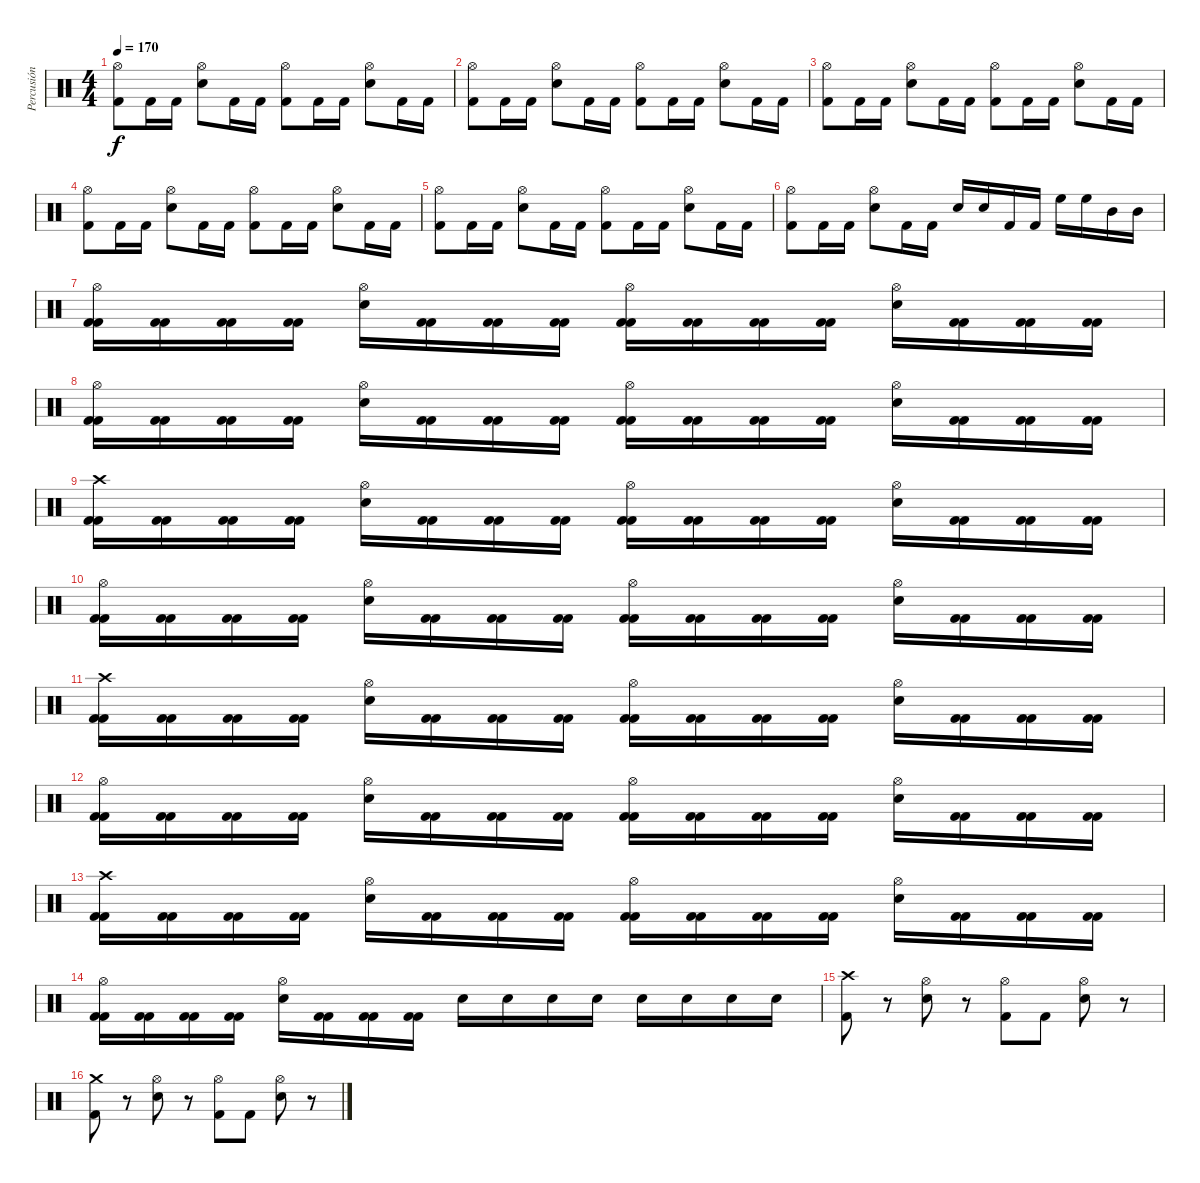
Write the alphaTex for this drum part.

\track ("Percusión" "Percusión") {instrument percussion}
\staff {score}
\articulation defaults
\ts (4 4)
\tempo 170
\clef neutral
\ks c
("Hi-Hat (open)" "Kick (hit) 2").8{dy f} "Kick (hit) 2".16 "Kick (hit) 2".16 ("Hi-Hat (open)" "Electric Snare (hit)").8 "Kick (hit) 2".16 "Kick (hit) 2".16 ("Hi-Hat (open)" "Kick (hit) 2").8 "Kick (hit) 2".16 "Kick (hit) 2".16 ("Hi-Hat (open)" "Electric Snare (hit)").8 "Kick (hit) 2".16 "Kick (hit) 2".16 |
("Hi-Hat (open)" "Kick (hit) 2").8 "Kick (hit) 2".16 "Kick (hit) 2".16 ("Hi-Hat (open)" "Electric Snare (hit)").8 "Kick (hit) 2".16 "Kick (hit) 2".16 ("Hi-Hat (open)" "Kick (hit) 2").8 "Kick (hit) 2".16 "Kick (hit) 2".16 ("Hi-Hat (open)" "Electric Snare (hit)").8 "Kick (hit) 2".16 "Kick (hit) 2".16 |
("Hi-Hat (open)" "Kick (hit) 2").8 "Kick (hit) 2".16 "Kick (hit) 2".16 ("Hi-Hat (open)" "Electric Snare (hit)").8 "Kick (hit) 2".16 "Kick (hit) 2".16 ("Hi-Hat (open)" "Kick (hit) 2").8 "Kick (hit) 2".16 "Kick (hit) 2".16 ("Hi-Hat (open)" "Electric Snare (hit)").8 "Kick (hit) 2".16 "Kick (hit) 2".16 |
("Hi-Hat (open)" "Kick (hit) 2").8 "Kick (hit) 2".16 "Kick (hit) 2".16 ("Hi-Hat (open)" "Electric Snare (hit)").8 "Kick (hit) 2".16 "Kick (hit) 2".16 ("Hi-Hat (open)" "Kick (hit) 2").8 "Kick (hit) 2".16 "Kick (hit) 2".16 ("Hi-Hat (open)" "Electric Snare (hit)").8 "Kick (hit) 2".16 "Kick (hit) 2".16 |
("Hi-Hat (open)" "Kick (hit) 2").8 "Kick (hit) 2".16 "Kick (hit) 2".16 ("Hi-Hat (open)" "Electric Snare (hit)").8 "Kick (hit) 2".16 "Kick (hit) 2".16 ("Hi-Hat (open)" "Kick (hit) 2").8 "Kick (hit) 2".16 "Kick (hit) 2".16 ("Hi-Hat (open)" "Electric Snare (hit)").8 "Kick (hit) 2".16 "Kick (hit) 2".16 |
("Hi-Hat (open)" "Kick (hit) 2").8 "Kick (hit) 2".16 "Kick (hit) 2".16 ("Hi-Hat (open)" "Electric Snare (hit)").8 "Kick (hit) 2".16 "Kick (hit) 2".16 "Electric Snare (hit)".16 "Electric Snare (hit)".16 "Kick (hit) 2".16 "Kick (hit) 2".16 "High Floor Tom (hit)".16 "High Floor Tom (hit)".16 "Mid Tom (hit)".16 "Mid Tom (hit)".16 |
("Hi-Hat (open)" "Kick (hit) 2" "Kick (hit) 2").16 ("Kick (hit) 2" "Kick (hit) 2").16 ("Kick (hit) 2" "Kick (hit) 2").16 ("Kick (hit) 2" "Kick (hit) 2").16 ("Hi-Hat (open)" "Electric Snare (hit)").16 ("Kick (hit) 2" "Kick (hit) 2").16 ("Kick (hit) 2" "Kick (hit) 2").16 ("Kick (hit) 2" "Kick (hit) 2").16 ("Hi-Hat (open)" "Kick (hit) 2" "Kick (hit) 2").16 ("Kick (hit) 2" "Kick (hit) 2").16 ("Kick (hit) 2" "Kick (hit) 2").16 ("Kick (hit) 2" "Kick (hit) 2").16 ("Hi-Hat (open)" "Electric Snare (hit)").16 ("Kick (hit) 2" "Kick (hit) 2").16 ("Kick (hit) 2" "Kick (hit) 2").16 ("Kick (hit) 2" "Kick (hit) 2").16 |
("Hi-Hat (open)" "Kick (hit) 2" "Kick (hit) 2").16 ("Kick (hit) 2" "Kick (hit) 2").16 ("Kick (hit) 2" "Kick (hit) 2").16 ("Kick (hit) 2" "Kick (hit) 2").16 ("Hi-Hat (open)" "Electric Snare (hit)").16 ("Kick (hit) 2" "Kick (hit) 2").16 ("Kick (hit) 2" "Kick (hit) 2").16 ("Kick (hit) 2" "Kick (hit) 2").16 ("Hi-Hat (open)" "Kick (hit) 2" "Kick (hit) 2").16 ("Kick (hit) 2" "Kick (hit) 2").16 ("Kick (hit) 2" "Kick (hit) 2").16 ("Kick (hit) 2" "Kick (hit) 2").16 ("Hi-Hat (open)" "Electric Snare (hit)").16 ("Kick (hit) 2" "Kick (hit) 2").16 ("Kick (hit) 2" "Kick (hit) 2").16 ("Kick (hit) 2" "Kick (hit) 2").16 |
("Crash high (hit)" "Kick (hit) 2" "Kick (hit) 2").16 ("Kick (hit) 2" "Kick (hit) 2").16 ("Kick (hit) 2" "Kick (hit) 2").16 ("Kick (hit) 2" "Kick (hit) 2").16 ("Hi-Hat (open)" "Electric Snare (hit)").16 ("Kick (hit) 2" "Kick (hit) 2").16 ("Kick (hit) 2" "Kick (hit) 2").16 ("Kick (hit) 2" "Kick (hit) 2").16 ("Hi-Hat (open)" "Kick (hit) 2" "Kick (hit) 2").16 ("Kick (hit) 2" "Kick (hit) 2").16 ("Kick (hit) 2" "Kick (hit) 2").16 ("Kick (hit) 2" "Kick (hit) 2").16 ("Hi-Hat (open)" "Electric Snare (hit)").16 ("Kick (hit) 2" "Kick (hit) 2").16 ("Kick (hit) 2" "Kick (hit) 2").16 ("Kick (hit) 2" "Kick (hit) 2").16 |
("Hi-Hat (open)" "Kick (hit) 2" "Kick (hit) 2").16 ("Kick (hit) 2" "Kick (hit) 2").16 ("Kick (hit) 2" "Kick (hit) 2").16 ("Kick (hit) 2" "Kick (hit) 2").16 ("Hi-Hat (open)" "Electric Snare (hit)").16 ("Kick (hit) 2" "Kick (hit) 2").16 ("Kick (hit) 2" "Kick (hit) 2").16 ("Kick (hit) 2" "Kick (hit) 2").16 ("Hi-Hat (open)" "Kick (hit) 2" "Kick (hit) 2").16 ("Kick (hit) 2" "Kick (hit) 2").16 ("Kick (hit) 2" "Kick (hit) 2").16 ("Kick (hit) 2" "Kick (hit) 2").16 ("Hi-Hat (open)" "Electric Snare (hit)").16 ("Kick (hit) 2" "Kick (hit) 2").16 ("Kick (hit) 2" "Kick (hit) 2").16 ("Kick (hit) 2" "Kick (hit) 2").16 |
("Crash high (hit)" "Kick (hit) 2" "Kick (hit) 2").16 ("Kick (hit) 2" "Kick (hit) 2").16 ("Kick (hit) 2" "Kick (hit) 2").16 ("Kick (hit) 2" "Kick (hit) 2").16 ("Hi-Hat (open)" "Electric Snare (hit)").16 ("Kick (hit) 2" "Kick (hit) 2").16 ("Kick (hit) 2" "Kick (hit) 2").16 ("Kick (hit) 2" "Kick (hit) 2").16 ("Hi-Hat (open)" "Kick (hit) 2" "Kick (hit) 2").16 ("Kick (hit) 2" "Kick (hit) 2").16 ("Kick (hit) 2" "Kick (hit) 2").16 ("Kick (hit) 2" "Kick (hit) 2").16 ("Hi-Hat (open)" "Electric Snare (hit)").16 ("Kick (hit) 2" "Kick (hit) 2").16 ("Kick (hit) 2" "Kick (hit) 2").16 ("Kick (hit) 2" "Kick (hit) 2").16 |
("Hi-Hat (open)" "Kick (hit) 2" "Kick (hit) 2").16 ("Kick (hit) 2" "Kick (hit) 2").16 ("Kick (hit) 2" "Kick (hit) 2").16 ("Kick (hit) 2" "Kick (hit) 2").16 ("Hi-Hat (open)" "Electric Snare (hit)").16 ("Kick (hit) 2" "Kick (hit) 2").16 ("Kick (hit) 2" "Kick (hit) 2").16 ("Kick (hit) 2" "Kick (hit) 2").16 ("Hi-Hat (open)" "Kick (hit) 2" "Kick (hit) 2").16 ("Kick (hit) 2" "Kick (hit) 2").16 ("Kick (hit) 2" "Kick (hit) 2").16 ("Kick (hit) 2" "Kick (hit) 2").16 ("Hi-Hat (open)" "Electric Snare (hit)").16 ("Kick (hit) 2" "Kick (hit) 2").16 ("Kick (hit) 2" "Kick (hit) 2").16 ("Kick (hit) 2" "Kick (hit) 2").16 |
("Crash high (hit)" "Kick (hit) 2" "Kick (hit) 2").16 ("Kick (hit) 2" "Kick (hit) 2").16 ("Kick (hit) 2" "Kick (hit) 2").16 ("Kick (hit) 2" "Kick (hit) 2").16 ("Hi-Hat (open)" "Electric Snare (hit)").16 ("Kick (hit) 2" "Kick (hit) 2").16 ("Kick (hit) 2" "Kick (hit) 2").16 ("Kick (hit) 2" "Kick (hit) 2").16 ("Hi-Hat (open)" "Kick (hit) 2" "Kick (hit) 2").16 ("Kick (hit) 2" "Kick (hit) 2").16 ("Kick (hit) 2" "Kick (hit) 2").16 ("Kick (hit) 2" "Kick (hit) 2").16 ("Hi-Hat (open)" "Electric Snare (hit)").16 ("Kick (hit) 2" "Kick (hit) 2").16 ("Kick (hit) 2" "Kick (hit) 2").16 ("Kick (hit) 2" "Kick (hit) 2").16 |
("Hi-Hat (open)" "Kick (hit) 2" "Kick (hit) 2").16 ("Kick (hit) 2" "Kick (hit) 2").16 ("Kick (hit) 2" "Kick (hit) 2").16 ("Kick (hit) 2" "Kick (hit) 2").16 ("Hi-Hat (open)" "Electric Snare (hit)").16 ("Kick (hit) 2" "Kick (hit) 2").16 ("Kick (hit) 2" "Kick (hit) 2").16 ("Kick (hit) 2" "Kick (hit) 2").16 "Electric Snare (hit)".16 "Electric Snare (hit)".16 "Electric Snare (hit)".16 "Electric Snare (hit)".16 "Electric Snare (hit)".16 "Electric Snare (hit)".16 "Electric Snare (hit)".16 "Electric Snare (hit)".16 |
("Crash high (hit)" "Kick (hit) 2").8 r.8 ("Hi-Hat (open)" "Electric Snare (hit)").8 r.8 ("Hi-Hat (open)" "Kick (hit) 2").8 "Kick (hit) 2".8 ("Hi-Hat (open)" "Electric Snare (hit)").8 r.8 |
("Crash medium (hit)" "Kick (hit) 2").8 r.8 ("Hi-Hat (open)" "Electric Snare (hit)").8 r.8 ("Hi-Hat (open)" "Kick (hit) 2").8 "Kick (hit) 2".8 ("Hi-Hat (open)" "Electric Snare (hit)").8 r.8
